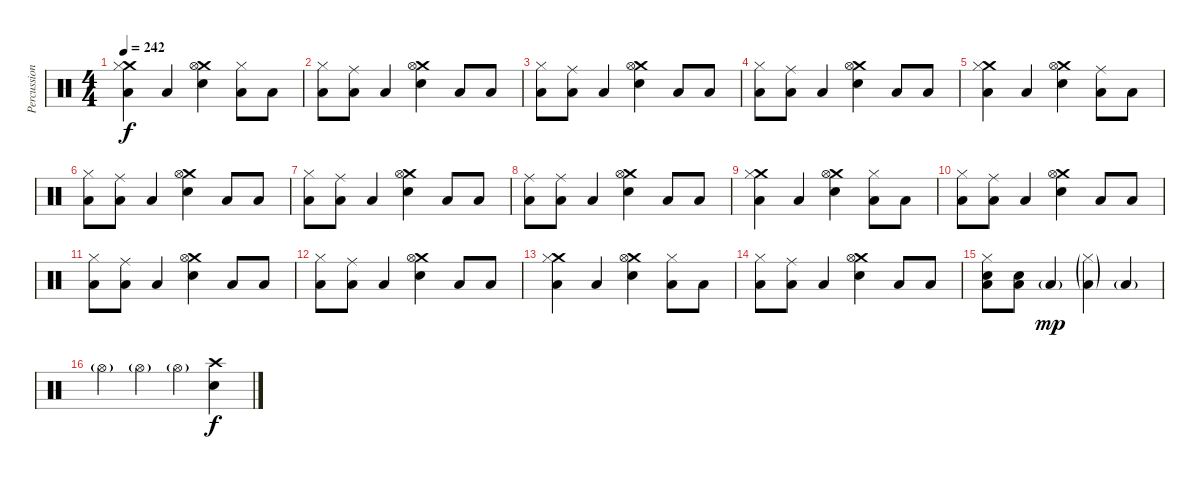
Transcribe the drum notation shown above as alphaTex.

\track ("Percussion" "Percussion") {instrument percussion}
\staff {score}
\articulation defaults
\ts (4 4)
\tempo 242
\clef neutral
\ks c
("Crash medium (hit)" "Hi-Hat (closed)" "Low Tom (hit)").4{dy f} "Low Tom (hit)".4 ("Crash medium (hit)" "Hi-Hat (open)" "Electric Snare (hit)").4 ("Hi-Hat (closed)" "Low Tom (hit)").8 "Low Tom (hit)".8 |
("Hi-Hat (closed)" "Low Tom (hit)").8 ("Ride (middle)" "Low Tom (hit)").8 "Low Tom (hit)".4 ("Crash medium (hit)" "Hi-Hat (open)" "Electric Snare (hit)").4 "Low Tom (hit)".8 "Low Tom (hit)".8 |
("Hi-Hat (closed)" "Low Tom (hit)").8 ("Ride (middle)" "Low Tom (hit)").8 "Low Tom (hit)".4 ("Crash medium (hit)" "Hi-Hat (open)" "Electric Snare (hit)").4 "Low Tom (hit)".8 "Low Tom (hit)".8 |
("Hi-Hat (closed)" "Low Tom (hit)").8 ("Ride (middle)" "Low Tom (hit)").8 "Low Tom (hit)".4 ("Crash medium (hit)" "Hi-Hat (open)" "Electric Snare (hit)").4 "Low Tom (hit)".8 "Low Tom (hit)".8 |
("Crash medium (hit)" "Hi-Hat (closed)" "Low Tom (hit)").4 "Low Tom (hit)".4 ("Crash medium (hit)" "Hi-Hat (open)" "Electric Snare (hit)").4 ("Ride (middle)" "Low Tom (hit)").8 "Low Tom (hit)".8 |
("Hi-Hat (closed)" "Low Tom (hit)").8 ("Ride (middle)" "Low Tom (hit)").8 "Low Tom (hit)".4 ("Crash medium (hit)" "Hi-Hat (open)" "Electric Snare (hit)").4 "Low Tom (hit)".8 "Low Tom (hit)".8 |
("Hi-Hat (closed)" "Low Tom (hit)").8 ("Ride (middle)" "Low Tom (hit)").8 "Low Tom (hit)".4 ("Crash medium (hit)" "Hi-Hat (open)" "Electric Snare (hit)").4 "Low Tom (hit)".8 "Low Tom (hit)".8 |
("Ride (middle)" "Low Tom (hit)").8 ("Ride (middle)" "Low Tom (hit)").8 "Low Tom (hit)".4 ("Crash medium (hit)" "Hi-Hat (open)" "Electric Snare (hit)").4 "Low Tom (hit)".8 "Low Tom (hit)".8 |
("Crash medium (hit)" "Hi-Hat (closed)" "Low Tom (hit)").4 "Low Tom (hit)".4 ("Crash medium (hit)" "Hi-Hat (open)" "Electric Snare (hit)").4 ("Hi-Hat (closed)" "Low Tom (hit)").8 "Low Tom (hit)".8 |
("Hi-Hat (closed)" "Low Tom (hit)").8 ("Ride (middle)" "Low Tom (hit)").8 "Low Tom (hit)".4 ("Crash medium (hit)" "Hi-Hat (open)" "Electric Snare (hit)").4 "Low Tom (hit)".8 "Low Tom (hit)".8 |
("Hi-Hat (closed)" "Low Tom (hit)").8 ("Ride (middle)" "Low Tom (hit)").8 "Low Tom (hit)".4 ("Crash medium (hit)" "Hi-Hat (open)" "Electric Snare (hit)").4 "Low Tom (hit)".8 "Low Tom (hit)".8 |
("Hi-Hat (closed)" "Low Tom (hit)").8 ("Ride (middle)" "Low Tom (hit)").8 "Low Tom (hit)".4 ("Crash medium (hit)" "Hi-Hat (open)" "Electric Snare (hit)").4 "Low Tom (hit)".8 "Low Tom (hit)".8 |
("Crash medium (hit)" "Hi-Hat (closed)" "Low Tom (hit)").4 "Low Tom (hit)".4 ("Crash medium (hit)" "Hi-Hat (open)" "Electric Snare (hit)").4 ("Hi-Hat (closed)" "Low Tom (hit)").8 "Low Tom (hit)".8 |
("Hi-Hat (closed)" "Low Tom (hit)").8 ("Ride (middle)" "Low Tom (hit)").8 "Low Tom (hit)".4 ("Crash medium (hit)" "Hi-Hat (open)" "Electric Snare (hit)").4 "Low Tom (hit)".8 "Low Tom (hit)".8 |
("Hi-Hat (closed)" "Electric Snare (hit)" "Low Tom (hit)").8 ("Low Floor Tom (hit)" "Electric Snare (hit)").8 "Low Tom (hit)"{g}.4{dy mp} ("Hi-Hat (closed)"{g} "Low Tom (hit)"{g}).4 "Low Tom (hit)"{g}.4 |
"Hi-Hat (open)"{g}.4 "Hi-Hat (open)"{g}.4 "Hi-Hat (open)"{g}.4 ("Electric Snare (hit)" "Crash high (hit)").4{dy f}
